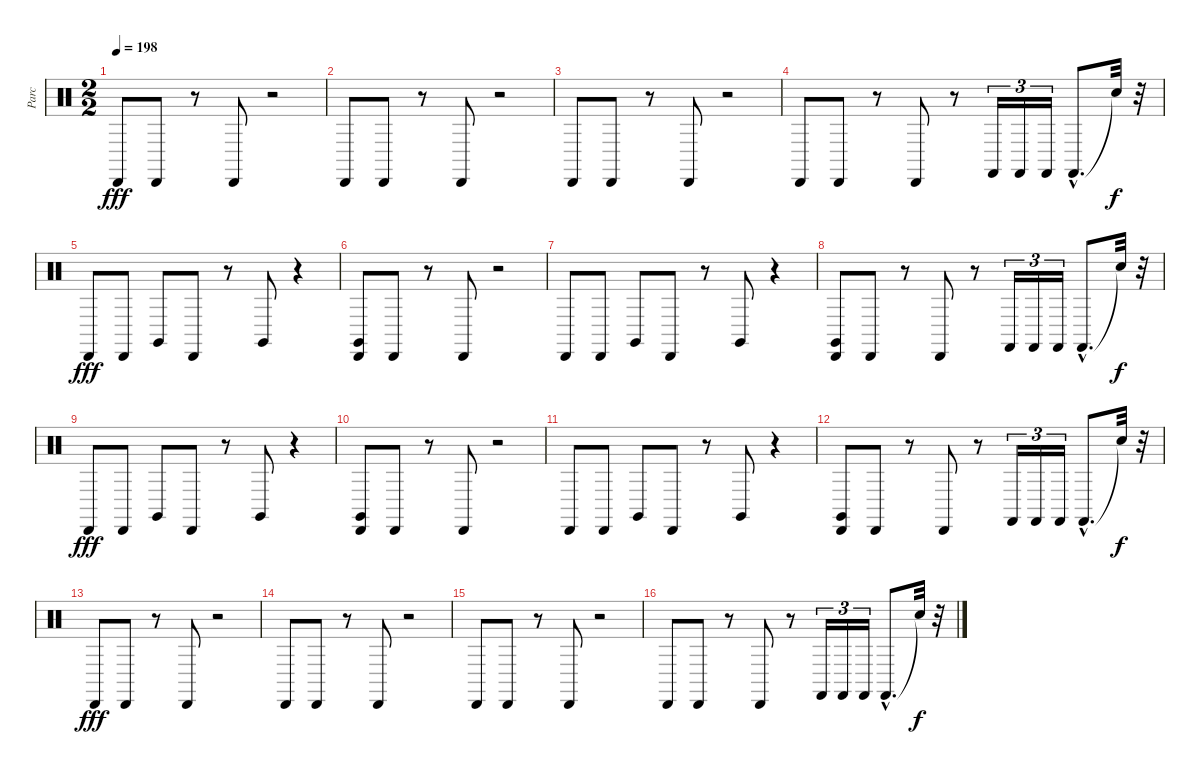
\track ("Parc" "Parc") {instrument percussion}
\staff {score}
\articulation defaults
\ts (2 2)
\tempo 198
\clef neutral
\ks c "Cabasa (hit)".8{dy fff} "Cabasa (hit)".8
r.8 "Cabasa (hit)".8 r.2 |
"Cabasa (hit)".8 "Cabasa (hit)".8 r.8 "Cabasa (hit)".8 r.2 |
"Cabasa (hit)".8 "Cabasa (hit)".8 r.8 "Cabasa (hit)".8 r.2 |
"Cabasa (hit)".8 "Cabasa (hit)".8 r.8 "Cabasa (hit)".8 r.8 "Castanets (hit)".16{tu (3 2)} "Castanets (hit)".16{tu (3 2)} "Castanets (hit)".16{tu (3 2)} "Castanets (hit)"{hac}.8{d} "Snare (hit)"{t}.32{dy f} r.32 |
"Cabasa (hit)".8{dy fff} "Cabasa (hit)".8 "Claves (hit)".8 "Cabasa (hit)".8 r.8 "Claves (hit)".8 r.4 |
("Cabasa (hit)" "Claves (hit)").8 "Cabasa (hit)".8 r.8 "Cabasa (hit)".8 r.2 |
"Cabasa (hit)".8 "Cabasa (hit)".8 "Claves (hit)".8 "Cabasa (hit)".8 r.8 "Claves (hit)".8 r.4 |
("Cabasa (hit)" "Claves (hit)").8 "Cabasa (hit)".8 r.8 "Cabasa (hit)".8 r.8 "Castanets (hit)".16{tu (3 2)} "Castanets (hit)".16{tu (3 2)} "Castanets (hit)".16{tu (3 2)} "Castanets (hit)"{hac}.8{d} "Snare (hit)"{t}.32{dy f} r.32 |
"Cabasa (hit)".8{dy fff} "Cabasa (hit)".8 "Claves (hit)".8 "Cabasa (hit)".8 r.8 "Claves (hit)".8 r.4 |
("Claves (hit)" "Cabasa (hit)").8 "Cabasa (hit)".8 r.8 "Cabasa (hit)".8 r.2 |
"Cabasa (hit)".8 "Cabasa (hit)".8 "Claves (hit)".8 "Cabasa (hit)".8 r.8 "Claves (hit)".8 r.4 |
("Claves (hit)" "Cabasa (hit)").8 "Cabasa (hit)".8 r.8 "Cabasa (hit)".8 r.8 "Castanets (hit)".16{tu (3 2)} "Castanets (hit)".16{tu (3 2)} "Castanets (hit)".16{tu (3 2)} "Castanets (hit)"{hac}.8{d} "Snare (hit)"{t}.32{dy f} r.32 |
"Cabasa (hit)".8{dy fff} "Cabasa (hit)".8 r.8 "Cabasa (hit)".8 r.2 |
"Cabasa (hit)".8 "Cabasa (hit)".8 r.8 "Cabasa (hit)".8 r.2 |
"Cabasa (hit)".8 "Cabasa (hit)".8 r.8 "Cabasa (hit)".8 r.2 |
"Cabasa (hit)".8 "Cabasa (hit)".8 r.8 "Cabasa (hit)".8 r.8 "Castanets (hit)".16{tu (3 2)} "Castanets (hit)".16{tu (3 2)} "Castanets (hit)".16{tu (3 2)} "Castanets (hit)"{hac}.8{d} "Snare (hit)"{t}.32{dy f} r.32
